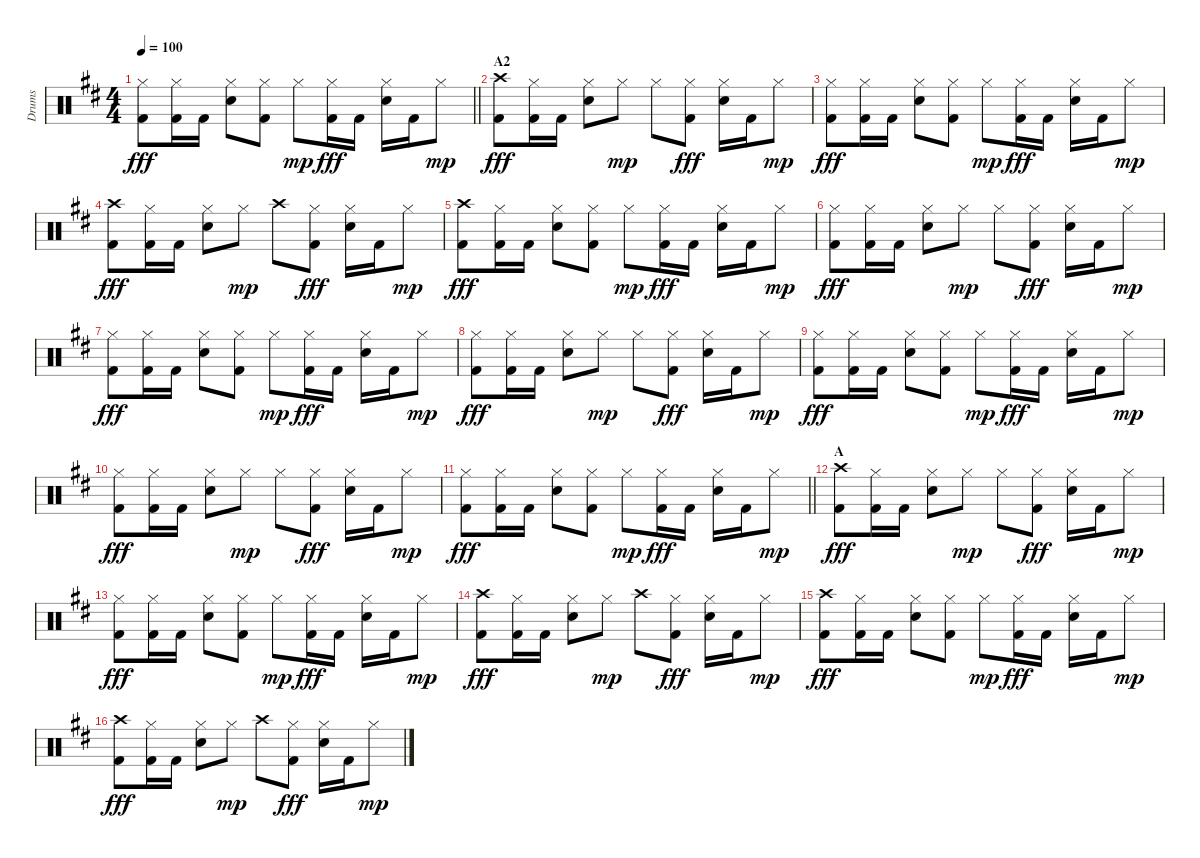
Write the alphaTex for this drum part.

\track ("Drums" "Drums") {instrument percussion}
\staff
\articulation defaults
\ts (4 4)
\tempo 100
\clef neutral
\barLineRight lightlight
\ks bminor
("Hi-Hat (closed)" "Kick (hit) 2").8{dy fff} ("Hi-Hat (closed)" "Kick (hit) 2").16 "Kick (hit) 2".16 ("Hi-Hat (closed)" "Electric Snare (hit)").8 ("Hi-Hat (closed)" "Kick (hit) 2").8 "Hi-Hat (closed)".8{dy mp} ("Hi-Hat (closed)" "Kick (hit) 2").16{dy fff} "Kick (hit) 2".16 ("Hi-Hat (closed)" "Electric Snare (hit)").16 "Kick (hit) 2".16 "Hi-Hat (closed)".8{dy mp} |
\section ("" "A2")
("Crash high (hit)" "Kick (hit) 2").8{dy fff} ("Hi-Hat (closed)" "Kick (hit) 2").16 "Kick (hit) 2".16 ("Hi-Hat (closed)" "Electric Snare (hit)").8 "Hi-Hat (closed)".8{dy mp} "Hi-Hat (closed)".8 ("Hi-Hat (closed)" "Kick (hit) 2").8{dy fff} ("Hi-Hat (closed)" "Electric Snare (hit)").16 "Kick (hit) 2".16 "Hi-Hat (closed)".8{dy mp} |
("Hi-Hat (closed)" "Kick (hit) 2").8{dy fff} ("Hi-Hat (closed)" "Kick (hit) 2").16 "Kick (hit) 2".16 ("Hi-Hat (closed)" "Electric Snare (hit)").8 ("Hi-Hat (closed)" "Kick (hit) 2").8 "Hi-Hat (closed)".8{dy mp} ("Hi-Hat (closed)" "Kick (hit) 2").16{dy fff} "Kick (hit) 2".16 ("Hi-Hat (closed)" "Electric Snare (hit)").16 "Kick (hit) 2".16 "Hi-Hat (closed)".8{dy mp} |
("Crash high (hit)" "Kick (hit) 2").8{dy fff} ("Hi-Hat (closed)" "Kick (hit) 2").16 "Kick (hit) 2".16 ("Hi-Hat (closed)" "Electric Snare (hit)").8 "Hi-Hat (closed)".8{dy mp} "Crash high (hit)".8 ("Hi-Hat (closed)" "Kick (hit) 2").8{dy fff} ("Hi-Hat (closed)" "Electric Snare (hit)").16 "Kick (hit) 2".16 "Hi-Hat (closed)".8{dy mp} |
("Crash high (hit)" "Kick (hit) 2").8{dy fff} ("Hi-Hat (closed)" "Kick (hit) 2").16 "Kick (hit) 2".16 ("Hi-Hat (closed)" "Electric Snare (hit)").8 ("Hi-Hat (closed)" "Kick (hit) 2").8 "Hi-Hat (closed)".8{dy mp} ("Hi-Hat (closed)" "Kick (hit) 2").16{dy fff} "Kick (hit) 2".16 ("Hi-Hat (closed)" "Electric Snare (hit)").16 "Kick (hit) 2".16 "Hi-Hat (closed)".8{dy mp} |
("Hi-Hat (closed)" "Kick (hit) 2").8{dy fff} ("Hi-Hat (closed)" "Kick (hit) 2").16 "Kick (hit) 2".16 ("Hi-Hat (closed)" "Electric Snare (hit)").8 "Hi-Hat (closed)".8{dy mp} "Hi-Hat (closed)".8 ("Hi-Hat (closed)" "Kick (hit) 2").8{dy fff} ("Hi-Hat (closed)" "Electric Snare (hit)").16 "Kick (hit) 2".16 "Hi-Hat (closed)".8{dy mp} |
("Hi-Hat (closed)" "Kick (hit) 2").8{dy fff} ("Hi-Hat (closed)" "Kick (hit) 2").16 "Kick (hit) 2".16 ("Hi-Hat (closed)" "Electric Snare (hit)").8 ("Hi-Hat (closed)" "Kick (hit) 2").8 "Hi-Hat (closed)".8{dy mp} ("Hi-Hat (closed)" "Kick (hit) 2").16{dy fff} "Kick (hit) 2".16 ("Hi-Hat (closed)" "Electric Snare (hit)").16 "Kick (hit) 2".16 "Hi-Hat (closed)".8{dy mp} |
("Hi-Hat (closed)" "Kick (hit) 2").8{dy fff} ("Hi-Hat (closed)" "Kick (hit) 2").16 "Kick (hit) 2".16 ("Hi-Hat (closed)" "Electric Snare (hit)").8 "Hi-Hat (closed)".8{dy mp} "Hi-Hat (closed)".8 ("Hi-Hat (closed)" "Kick (hit) 2").8{dy fff} ("Hi-Hat (closed)" "Electric Snare (hit)").16 "Kick (hit) 2".16 "Hi-Hat (closed)".8{dy mp} |
("Hi-Hat (closed)" "Kick (hit) 2").8{dy fff} ("Hi-Hat (closed)" "Kick (hit) 2").16 "Kick (hit) 2".16 ("Hi-Hat (closed)" "Electric Snare (hit)").8 ("Hi-Hat (closed)" "Kick (hit) 2").8 "Hi-Hat (closed)".8{dy mp} ("Hi-Hat (closed)" "Kick (hit) 2").16{dy fff} "Kick (hit) 2".16 ("Hi-Hat (closed)" "Electric Snare (hit)").16 "Kick (hit) 2".16 "Hi-Hat (closed)".8{dy mp} |
("Hi-Hat (closed)" "Kick (hit) 2").8{dy fff} ("Hi-Hat (closed)" "Kick (hit) 2").16 "Kick (hit) 2".16 ("Hi-Hat (closed)" "Electric Snare (hit)").8 "Hi-Hat (closed)".8{dy mp} "Hi-Hat (closed)".8 ("Hi-Hat (closed)" "Kick (hit) 2").8{dy fff} ("Hi-Hat (closed)" "Electric Snare (hit)").16 "Kick (hit) 2".16 "Hi-Hat (closed)".8{dy mp} |
\barLineRight lightlight
("Hi-Hat (closed)" "Kick (hit) 2").8{dy fff} ("Hi-Hat (closed)" "Kick (hit) 2").16 "Kick (hit) 2".16 ("Hi-Hat (closed)" "Electric Snare (hit)").8 ("Hi-Hat (closed)" "Kick (hit) 2").8 "Hi-Hat (closed)".8{dy mp} ("Hi-Hat (closed)" "Kick (hit) 2").16{dy fff} "Kick (hit) 2".16 ("Hi-Hat (closed)" "Electric Snare (hit)").16 "Kick (hit) 2".16 "Hi-Hat (closed)".8{dy mp} |
\section ("" "A")
("Crash high (hit)" "Kick (hit) 2").8{dy fff} ("Hi-Hat (closed)" "Kick (hit) 2").16 "Kick (hit) 2".16 ("Hi-Hat (closed)" "Electric Snare (hit)").8 "Hi-Hat (closed)".8{dy mp} "Hi-Hat (closed)".8 ("Hi-Hat (closed)" "Kick (hit) 2").8{dy fff} ("Hi-Hat (closed)" "Electric Snare (hit)").16 "Kick (hit) 2".16 "Hi-Hat (closed)".8{dy mp} |
("Hi-Hat (closed)" "Kick (hit) 2").8{dy fff} ("Hi-Hat (closed)" "Kick (hit) 2").16 "Kick (hit) 2".16 ("Hi-Hat (closed)" "Electric Snare (hit)").8 ("Hi-Hat (closed)" "Kick (hit) 2").8 "Hi-Hat (closed)".8{dy mp} ("Hi-Hat (closed)" "Kick (hit) 2").16{dy fff} "Kick (hit) 2".16 ("Hi-Hat (closed)" "Electric Snare (hit)").16 "Kick (hit) 2".16 "Hi-Hat (closed)".8{dy mp} |
("Crash high (hit)" "Kick (hit) 2").8{dy fff} ("Hi-Hat (closed)" "Kick (hit) 2").16 "Kick (hit) 2".16 ("Hi-Hat (closed)" "Electric Snare (hit)").8 "Hi-Hat (closed)".8{dy mp} "Crash high (hit)".8 ("Hi-Hat (closed)" "Kick (hit) 2").8{dy fff} ("Hi-Hat (closed)" "Electric Snare (hit)").16 "Kick (hit) 2".16 "Hi-Hat (closed)".8{dy mp} |
("Crash high (hit)" "Kick (hit) 2").8{dy fff} ("Hi-Hat (closed)" "Kick (hit) 2").16 "Kick (hit) 2".16 ("Hi-Hat (closed)" "Electric Snare (hit)").8 ("Hi-Hat (closed)" "Kick (hit) 2").8 "Hi-Hat (closed)".8{dy mp} ("Hi-Hat (closed)" "Kick (hit) 2").16{dy fff} "Kick (hit) 2".16 ("Hi-Hat (closed)" "Electric Snare (hit)").16 "Kick (hit) 2".16 "Hi-Hat (closed)".8{dy mp} |
("Crash high (hit)" "Kick (hit) 2").8{dy fff} ("Hi-Hat (closed)" "Kick (hit) 2").16 "Kick (hit) 2".16 ("Hi-Hat (closed)" "Electric Snare (hit)").8 "Hi-Hat (closed)".8{dy mp} "Crash high (hit)".8 ("Hi-Hat (closed)" "Kick (hit) 2").8{dy fff} ("Hi-Hat (closed)" "Electric Snare (hit)").16 "Kick (hit) 2".16 "Hi-Hat (closed)".8{dy mp}
